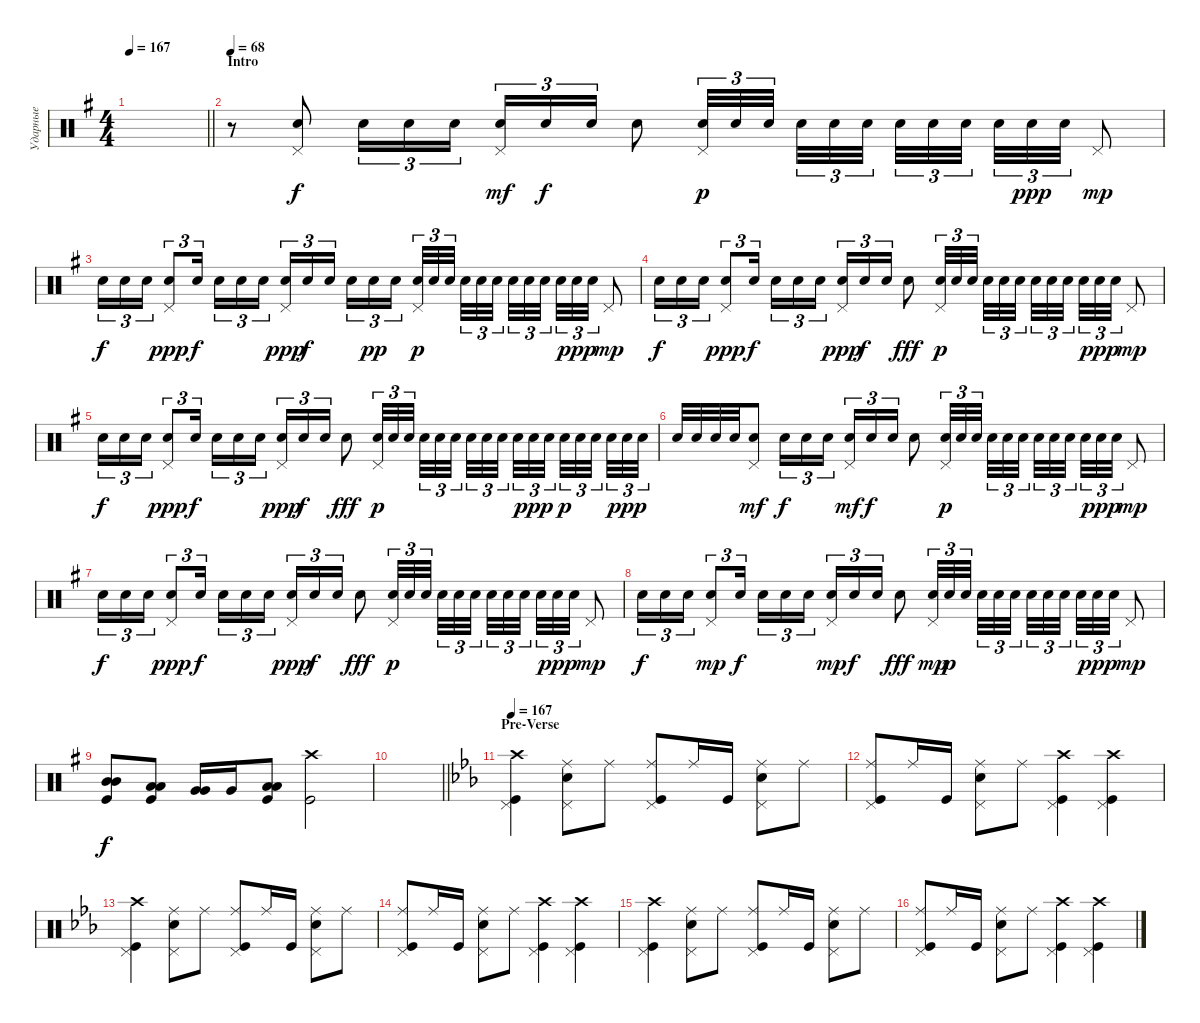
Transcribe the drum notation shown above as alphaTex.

\track ("Ударные" "Ударные") {instrument percussion}
\staff {score}
\articulation defaults
\ts (4 4)
\tempo 167
\clef neutral
\barLineRight lightlight
\ks eminor
|
\section ("" "Intro")
\tempo 68
r.8 ("Snare (hit) 2" "Pedal Hi-Hat (hit)").8 "Snare (hit) 2".16{tu (3 2) dy f} "Snare (hit) 2".16{tu (3 2)} "Snare (hit) 2".16{tu (3 2) beam splitsecondary} ("Snare (hit) 2" "Pedal Hi-Hat (hit)").16{tu (3 2) dy mf} "Snare (hit) 2".16{tu (3 2) dy f} "Snare (hit) 2".16{tu (3 2)} "Snare (hit) 2".8 ("Snare (hit) 2" "Pedal Hi-Hat (hit)").32{tu (3 2) dy p} "Snare (hit) 2".32{tu (3 2)} "Snare (hit) 2".32{tu (3 2) beam splitsecondary} "Snare (hit) 2".32{tu (3 2)} "Snare (hit) 2".32{tu (3 2)} "Snare (hit) 2".32{tu (3 2)} "Snare (hit) 2".32{tu (3 2)} "Snare (hit) 2".32{tu (3 2)} "Snare (hit) 2".32{tu (3 2) beam splitsecondary} "Snare (hit) 2".32{tu (3 2)} "Snare (hit) 2".32{tu (3 2) dy ppp} "Snare (hit) 2".32{tu (3 2)} "Pedal Hi-Hat (hit)".8{dy mp} |
"Snare (hit) 2".16{tu (3 2) dy f} "Snare (hit) 2".16{tu (3 2)} "Snare (hit) 2".16{tu (3 2)} ("Snare (hit) 2" "Pedal Hi-Hat (hit)").8{tu (3 2) dy ppp} "Snare (hit) 2".16{tu (3 2) dy f} "Snare (hit) 2".16{tu (3 2)} "Snare (hit) 2".16{tu (3 2)} "Snare (hit) 2".16{tu (3 2) beam splitsecondary} ("Snare (hit) 2" "Pedal Hi-Hat (hit)").16{tu (3 2) dy ppp} "Snare (hit) 2".16{tu (3 2) dy f} "Snare (hit) 2".16{tu (3 2)} "Snare (hit) 2".16{tu (3 2)} "Snare (hit) 2".16{tu (3 2) dy pp} "Snare (hit) 2".16{tu (3 2) beam splitsecondary} ("Snare (hit) 2" "Pedal Hi-Hat (hit)").32{tu (3 2) dy p} "Snare (hit) 2".32{tu (3 2)} "Snare (hit) 2".32{tu (3 2) beam splitsecondary} "Snare (hit) 2".32{tu (3 2)} "Snare (hit) 2".32{tu (3 2)} "Snare (hit) 2".32{tu (3 2)} "Snare (hit) 2".32{tu (3 2)} "Snare (hit) 2".32{tu (3 2)} "Snare (hit) 2".32{tu (3 2) beam splitsecondary} "Snare (hit) 2".32{tu (3 2)} "Snare (hit) 2".32{tu (3 2) dy ppp} "Snare (hit) 2".32{tu (3 2)} "Pedal Hi-Hat (hit)".8{dy mp} |
"Snare (hit) 2".16{tu (3 2) dy f} "Snare (hit) 2".16{tu (3 2)} "Snare (hit) 2".16{tu (3 2)} ("Snare (hit) 2" "Pedal Hi-Hat (hit)").8{tu (3 2) dy ppp} "Snare (hit) 2".16{tu (3 2) dy f} "Snare (hit) 2".16{tu (3 2)} "Snare (hit) 2".16{tu (3 2)} "Snare (hit) 2".16{tu (3 2) beam splitsecondary} ("Snare (hit) 2" "Pedal Hi-Hat (hit)").16{tu (3 2) dy ppp} "Snare (hit) 2".16{tu (3 2) dy f} "Snare (hit) 2".16{tu (3 2)} "Snare (hit) 2".8{dy fff} ("Snare (hit) 2" "Pedal Hi-Hat (hit)").32{tu (3 2) dy p} "Snare (hit) 2".32{tu (3 2)} "Snare (hit) 2".32{tu (3 2) beam splitsecondary} "Snare (hit) 2".32{tu (3 2)} "Snare (hit) 2".32{tu (3 2)} "Snare (hit) 2".32{tu (3 2)} "Snare (hit) 2".32{tu (3 2)} "Snare (hit) 2".32{tu (3 2)} "Snare (hit) 2".32{tu (3 2) beam splitsecondary} "Snare (hit) 2".32{tu (3 2)} "Snare (hit) 2".32{tu (3 2) dy ppp} "Snare (hit) 2".32{tu (3 2)} "Pedal Hi-Hat (hit)".8{dy mp} |
"Snare (hit) 2".16{tu (3 2) dy f} "Snare (hit) 2".16{tu (3 2)} "Snare (hit) 2".16{tu (3 2)} ("Snare (hit) 2" "Pedal Hi-Hat (hit)").8{tu (3 2) dy ppp} "Snare (hit) 2".16{tu (3 2) dy f} "Snare (hit) 2".16{tu (3 2)} "Snare (hit) 2".16{tu (3 2)} "Snare (hit) 2".16{tu (3 2) beam splitsecondary} ("Snare (hit) 2" "Pedal Hi-Hat (hit)").16{tu (3 2) dy ppp} "Snare (hit) 2".16{tu (3 2) dy f} "Snare (hit) 2".16{tu (3 2)} "Snare (hit) 2".8{dy fff} ("Snare (hit) 2" "Pedal Hi-Hat (hit)").32{tu (3 2) dy p} "Snare (hit) 2".32{tu (3 2)} "Snare (hit) 2".32{tu (3 2) beam splitsecondary} "Snare (hit) 2".32{tu (3 2)} "Snare (hit) 2".32{tu (3 2)} "Snare (hit) 2".32{tu (3 2)} "Snare (hit) 2".32{tu (3 2)} "Snare (hit) 2".32{tu (3 2)} "Snare (hit) 2".32{tu (3 2) beam splitsecondary} "Snare (hit) 2".32{tu (3 2)} "Snare (hit) 2".32{tu (3 2) dy ppp} "Snare (hit) 2".32{tu (3 2) beam splitsecondary} "Snare (hit) 2".32{tu (3 2) dy p} "Snare (hit) 2".32{tu (3 2)} "Snare (hit) 2".32{tu (3 2) beam splitsecondary} "Snare (hit) 2".32{tu (3 2)} "Snare (hit) 2".32{tu (3 2) dy ppp} "Snare (hit) 2".32{tu (3 2)} |
"Snare (hit) 2".32 "Snare (hit) 2".32 "Snare (hit) 2".32 "Snare (hit) 2".32 ("Snare (hit) 2" "Pedal Hi-Hat (hit)").8{dy mf} "Snare (hit) 2".16{tu (3 2) dy f} "Snare (hit) 2".16{tu (3 2)} "Snare (hit) 2".16{tu (3 2) beam splitsecondary} ("Snare (hit) 2" "Pedal Hi-Hat (hit)").16{tu (3 2) dy mf} "Snare (hit) 2".16{tu (3 2) dy f} "Snare (hit) 2".16{tu (3 2)} "Snare (hit) 2".8 ("Snare (hit) 2" "Pedal Hi-Hat (hit)").32{tu (3 2) dy p} "Snare (hit) 2".32{tu (3 2)} "Snare (hit) 2".32{tu (3 2) beam splitsecondary} "Snare (hit) 2".32{tu (3 2)} "Snare (hit) 2".32{tu (3 2)} "Snare (hit) 2".32{tu (3 2)} "Snare (hit) 2".32{tu (3 2)} "Snare (hit) 2".32{tu (3 2)} "Snare (hit) 2".32{tu (3 2) beam splitsecondary} "Snare (hit) 2".32{tu (3 2)} "Snare (hit) 2".32{tu (3 2) dy ppp} "Snare (hit) 2".32{tu (3 2)} "Pedal Hi-Hat (hit)".8{dy mp} |
"Snare (hit) 2".16{tu (3 2) dy f} "Snare (hit) 2".16{tu (3 2)} "Snare (hit) 2".16{tu (3 2)} ("Snare (hit) 2" "Pedal Hi-Hat (hit)").8{tu (3 2) dy ppp} "Snare (hit) 2".16{tu (3 2) dy f} "Snare (hit) 2".16{tu (3 2)} "Snare (hit) 2".16{tu (3 2)} "Snare (hit) 2".16{tu (3 2) beam splitsecondary} ("Snare (hit) 2" "Pedal Hi-Hat (hit)").16{tu (3 2) dy ppp} "Snare (hit) 2".16{tu (3 2) dy f} "Snare (hit) 2".16{tu (3 2)} "Snare (hit) 2".8{dy fff} ("Snare (hit) 2" "Pedal Hi-Hat (hit)").32{tu (3 2) dy p} "Snare (hit) 2".32{tu (3 2)} "Snare (hit) 2".32{tu (3 2) beam splitsecondary} "Snare (hit) 2".32{tu (3 2)} "Snare (hit) 2".32{tu (3 2)} "Snare (hit) 2".32{tu (3 2)} "Snare (hit) 2".32{tu (3 2)} "Snare (hit) 2".32{tu (3 2)} "Snare (hit) 2".32{tu (3 2) beam splitsecondary} "Snare (hit) 2".32{tu (3 2)} "Snare (hit) 2".32{tu (3 2) dy ppp} "Snare (hit) 2".32{tu (3 2)} "Pedal Hi-Hat (hit)".8{dy mp} |
"Snare (hit) 2".16{tu (3 2) dy f} "Snare (hit) 2".16{tu (3 2)} "Snare (hit) 2".16{tu (3 2)} ("Snare (hit) 2" "Pedal Hi-Hat (hit)").8{tu (3 2) dy mp} "Snare (hit) 2".16{tu (3 2) dy f} "Snare (hit) 2".16{tu (3 2)} "Snare (hit) 2".16{tu (3 2)} "Snare (hit) 2".16{tu (3 2) beam splitsecondary} ("Snare (hit) 2" "Pedal Hi-Hat (hit)").16{tu (3 2) dy mp} "Snare (hit) 2".16{tu (3 2) dy f} "Snare (hit) 2".16{tu (3 2)} "Snare (hit) 2".8{dy fff} ("Snare (hit) 2" "Pedal Hi-Hat (hit)").32{tu (3 2) dy mp} "Snare (hit) 2".32{tu (3 2) dy p} "Snare (hit) 2".32{tu (3 2) beam splitsecondary} "Snare (hit) 2".32{tu (3 2)} "Snare (hit) 2".32{tu (3 2)} "Snare (hit) 2".32{tu (3 2)} "Snare (hit) 2".32{tu (3 2)} "Snare (hit) 2".32{tu (3 2)} "Snare (hit) 2".32{tu (3 2) beam splitsecondary} "Snare (hit) 2".32{tu (3 2)} "Snare (hit) 2".32{tu (3 2) dy ppp} "Snare (hit) 2".32{tu (3 2)} "Pedal Hi-Hat (hit)".8{dy mp} |
("Mid Tom (hit)" "Mid Tom (hit)" "Kick (hit)").8{bd 60 dy f} ("Low Tom (hit)" "Kick (hit)" "Low Tom (hit)").8{bd 60} ("Very Low Tom (hit)" "Very Low Tom (hit)").16{bd 60} "Very Low Tom (hit)".16 ("Kick (hit)" "Low Floor Tom (hit)" "Low Floor Tom (hit)").8{bd 60} ("Kick (hit)" "Crash high (hit)").2 |
\barLineRight lightlight
|
\section ("" "Pre-Verse")
\tempo 167
\ks cminor
("Kick (hit)" "Crash high (hit)" "Pedal Hi-Hat (hit)").4 ("Snare (hit) 2" "Ride (middle)" "Pedal Hi-Hat (hit)").8 "Ride (middle)".8 ("Kick (hit)" "Ride (middle)" "Pedal Hi-Hat (hit)").8 "Ride (middle)".16 "Kick (hit)".16 ("Snare (hit) 2" "Pedal Hi-Hat (hit)" "Ride (middle)").8 "Ride (middle)".8 |
("Kick (hit)" "Ride (middle)" "Pedal Hi-Hat (hit)").8 "Ride (middle)".16 "Kick (hit)".16 ("Snare (hit) 2" "Ride (middle)" "Pedal Hi-Hat (hit)").8 "Ride (middle)".8 ("Kick (hit)" "Crash high (hit)" "Pedal Hi-Hat (hit)").4 ("Crash high (hit)" "Kick (hit)" "Pedal Hi-Hat (hit)").4 |
("Kick (hit)" "Crash high (hit)" "Pedal Hi-Hat (hit)").4 ("Snare (hit) 2" "Ride (middle)" "Pedal Hi-Hat (hit)").8 "Ride (middle)".8 ("Kick (hit)" "Ride (middle)" "Pedal Hi-Hat (hit)").8 "Ride (middle)".16 "Kick (hit)".16 ("Snare (hit) 2" "Pedal Hi-Hat (hit)" "Ride (middle)").8 "Ride (middle)".8 |
("Kick (hit)" "Ride (middle)" "Pedal Hi-Hat (hit)").8 "Ride (middle)".16 "Kick (hit)".16 ("Snare (hit) 2" "Ride (middle)" "Pedal Hi-Hat (hit)").8 "Ride (middle)".8 ("Kick (hit)" "Crash high (hit)" "Pedal Hi-Hat (hit)").4 ("Crash high (hit)" "Kick (hit)" "Pedal Hi-Hat (hit)").4 |
("Kick (hit)" "Crash high (hit)" "Pedal Hi-Hat (hit)").4 ("Snare (hit) 2" "Ride (middle)" "Pedal Hi-Hat (hit)").8 "Ride (middle)".8 ("Kick (hit)" "Ride (middle)" "Pedal Hi-Hat (hit)").8 "Ride (middle)".16 "Kick (hit)".16 ("Snare (hit) 2" "Pedal Hi-Hat (hit)" "Ride (middle)").8 "Ride (middle)".8 |
("Kick (hit)" "Ride (middle)" "Pedal Hi-Hat (hit)").8 "Ride (middle)".16 "Kick (hit)".16 ("Snare (hit) 2" "Ride (middle)" "Pedal Hi-Hat (hit)").8 "Ride (middle)".8 ("Kick (hit)" "Crash high (hit)" "Pedal Hi-Hat (hit)").4 ("Crash high (hit)" "Kick (hit)" "Pedal Hi-Hat (hit)").4
